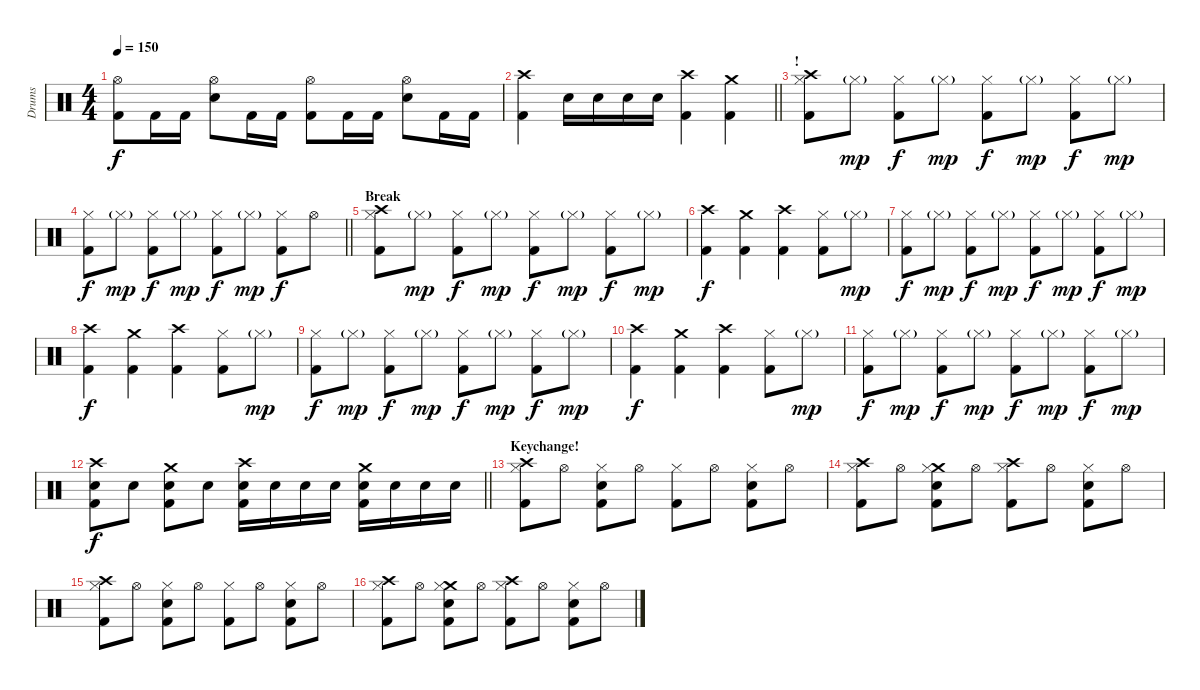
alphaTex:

\track ("Drums" "Drums") {instrument percussion}
\staff {score}
\articulation defaults
\ts (4 4)
\tempo 150
\clef neutral
\ks c
("Hi-Hat (open)" "Kick (hit) 2").8{dy f} "Kick (hit) 2".16 "Kick (hit) 2".16 ("Hi-Hat (open)" "Snare (hit) 2").8 "Kick (hit) 2".16 "Kick (hit) 2".16 ("Hi-Hat (open)" "Kick (hit) 2").8 "Kick (hit) 2".16 "Kick (hit) 2".16 ("Hi-Hat (open)" "Snare (hit) 2").8 "Kick (hit) 2".16 "Kick (hit) 2".16 |
\barLineRight lightlight
("Crash high (hit)" "Kick (hit) 2").4 "Snare (hit) 2".16 "Snare (hit) 2".16 "Snare (hit) 2".16 "Snare (hit) 2".16 ("Crash high (hit)" "Kick (hit) 2").4 ("Crash medium (hit)" "Kick (hit) 2").4 |
\section ("" "!")
("Crash high (hit)" "Hi-Hat (closed)" "Kick (hit) 2").8 "Hi-Hat (closed)"{g}.8{dy mp} ("Hi-Hat (closed)" "Kick (hit) 2").8{dy f} "Hi-Hat (closed)"{g}.8{dy mp} ("Hi-Hat (closed)" "Kick (hit) 2").8{dy f} "Hi-Hat (closed)"{g}.8{dy mp} ("Hi-Hat (closed)" "Kick (hit) 2").8{dy f} "Hi-Hat (closed)"{g}.8{dy mp} |
\barLineRight lightlight
("Hi-Hat (closed)" "Kick (hit) 2").8{dy f} "Hi-Hat (closed)"{g}.8{dy mp} ("Hi-Hat (closed)" "Kick (hit) 2").8{dy f} "Hi-Hat (closed)"{g}.8{dy mp} ("Hi-Hat (closed)" "Kick (hit) 2").8{dy f} "Hi-Hat (closed)"{g}.8{dy mp} ("Hi-Hat (closed)" "Kick (hit) 2").8{dy f} "Hi-Hat (open)".8 |
\section ("" "Break")
("Crash high (hit)" "Hi-Hat (closed)" "Kick (hit) 2").8 "Hi-Hat (closed)"{g}.8{dy mp} ("Hi-Hat (closed)" "Kick (hit) 2").8{dy f} "Hi-Hat (closed)"{g}.8{dy mp} ("Hi-Hat (closed)" "Kick (hit) 2").8{dy f} "Hi-Hat (closed)"{g}.8{dy mp} ("Hi-Hat (closed)" "Kick (hit) 2").8{dy f} "Hi-Hat (closed)"{g}.8{dy mp} |
("Crash high (hit)" "Kick (hit) 2").4{dy f} ("Crash medium (hit)" "Kick (hit) 2").4 ("Crash high (hit)" "Kick (hit) 2").4 ("Hi-Hat (closed)" "Kick (hit) 2").8 "Hi-Hat (closed)"{g}.8{dy mp} |
("Hi-Hat (closed)" "Kick (hit) 2").8{dy f} "Hi-Hat (closed)"{g}.8{dy mp} ("Hi-Hat (closed)" "Kick (hit) 2").8{dy f} "Hi-Hat (closed)"{g}.8{dy mp} ("Hi-Hat (closed)" "Kick (hit) 2").8{dy f} "Hi-Hat (closed)"{g}.8{dy mp} ("Hi-Hat (closed)" "Kick (hit) 2").8{dy f} "Hi-Hat (closed)"{g}.8{dy mp} |
("Crash high (hit)" "Kick (hit) 2").4{dy f} ("Crash medium (hit)" "Kick (hit) 2").4 ("Crash high (hit)" "Kick (hit) 2").4 ("Hi-Hat (closed)" "Kick (hit) 2").8 "Hi-Hat (closed)"{g}.8{dy mp} |
("Hi-Hat (closed)" "Kick (hit) 2").8{dy f} "Hi-Hat (closed)"{g}.8{dy mp} ("Hi-Hat (closed)" "Kick (hit) 2").8{dy f} "Hi-Hat (closed)"{g}.8{dy mp} ("Hi-Hat (closed)" "Kick (hit) 2").8{dy f} "Hi-Hat (closed)"{g}.8{dy mp} ("Hi-Hat (closed)" "Kick (hit) 2").8{dy f} "Hi-Hat (closed)"{g}.8{dy mp} |
("Crash high (hit)" "Kick (hit) 2").4{dy f} ("Crash medium (hit)" "Kick (hit) 2").4 ("Crash high (hit)" "Kick (hit) 2").4 ("Hi-Hat (closed)" "Kick (hit) 2").8 "Hi-Hat (closed)"{g}.8{dy mp} |
("Hi-Hat (closed)" "Kick (hit) 2").8{dy f} "Hi-Hat (closed)"{g}.8{dy mp} ("Hi-Hat (closed)" "Kick (hit) 2").8{dy f} "Hi-Hat (closed)"{g}.8{dy mp} ("Hi-Hat (closed)" "Kick (hit) 2").8{dy f} "Hi-Hat (closed)"{g}.8{dy mp} ("Hi-Hat (closed)" "Kick (hit) 2").8{dy f} "Hi-Hat (closed)"{g}.8{dy mp} |
\barLineRight lightlight
("Crash high (hit)" "Snare (hit) 2" "Kick (hit) 2").8{dy f} "Snare (hit) 2".8 ("Crash medium (hit)" "Snare (hit) 2" "Kick (hit) 2").8 "Snare (hit) 2".8 ("Crash high (hit)" "Snare (hit) 2" "Kick (hit) 2").16 "Snare (hit) 2".16 "Snare (hit) 2".16 "Snare (hit) 2".16 ("Crash medium (hit)" "Snare (hit) 2" "Kick (hit) 2").16 "Snare (hit) 2".16 "Snare (hit) 2".16 "Snare (hit) 2".16 |
\section ("" "Keychange!")
("Crash high (hit)" "Hi-Hat (closed)" "Kick (hit) 2").8 "Hi-Hat (open)".8 ("Hi-Hat (closed)" "Snare (hit) 2" "Kick (hit) 2").8 "Hi-Hat (open)".8 ("Hi-Hat (closed)" "Kick (hit) 2").8 "Hi-Hat (open)".8 ("Hi-Hat (closed)" "Snare (hit) 2" "Kick (hit) 2").8 "Hi-Hat (open)".8 |
("Crash high (hit)" "Hi-Hat (closed)" "Kick (hit) 2").8 "Hi-Hat (open)".8 ("Crash medium (hit)" "Hi-Hat (closed)" "Snare (hit) 2" "Kick (hit) 2").8 "Hi-Hat (open)".8 ("Crash high (hit)" "Hi-Hat (closed)" "Kick (hit) 2").8 "Hi-Hat (open)".8 ("Hi-Hat (closed)" "Snare (hit) 2" "Kick (hit) 2").8 "Hi-Hat (open)".8 |
("Crash high (hit)" "Hi-Hat (closed)" "Kick (hit) 2").8 "Hi-Hat (open)".8 ("Hi-Hat (closed)" "Snare (hit) 2" "Kick (hit) 2").8 "Hi-Hat (open)".8 ("Hi-Hat (closed)" "Kick (hit) 2").8 "Hi-Hat (open)".8 ("Hi-Hat (closed)" "Snare (hit) 2" "Kick (hit) 2").8 "Hi-Hat (open)".8 |
("Crash high (hit)" "Hi-Hat (closed)" "Kick (hit) 2").8 "Hi-Hat (open)".8 ("Crash medium (hit)" "Hi-Hat (closed)" "Snare (hit) 2" "Kick (hit) 2").8 "Hi-Hat (open)".8 ("Crash high (hit)" "Hi-Hat (closed)" "Kick (hit) 2").8 "Hi-Hat (open)".8 ("Hi-Hat (closed)" "Snare (hit) 2" "Kick (hit) 2").8 "Hi-Hat (open)".8
